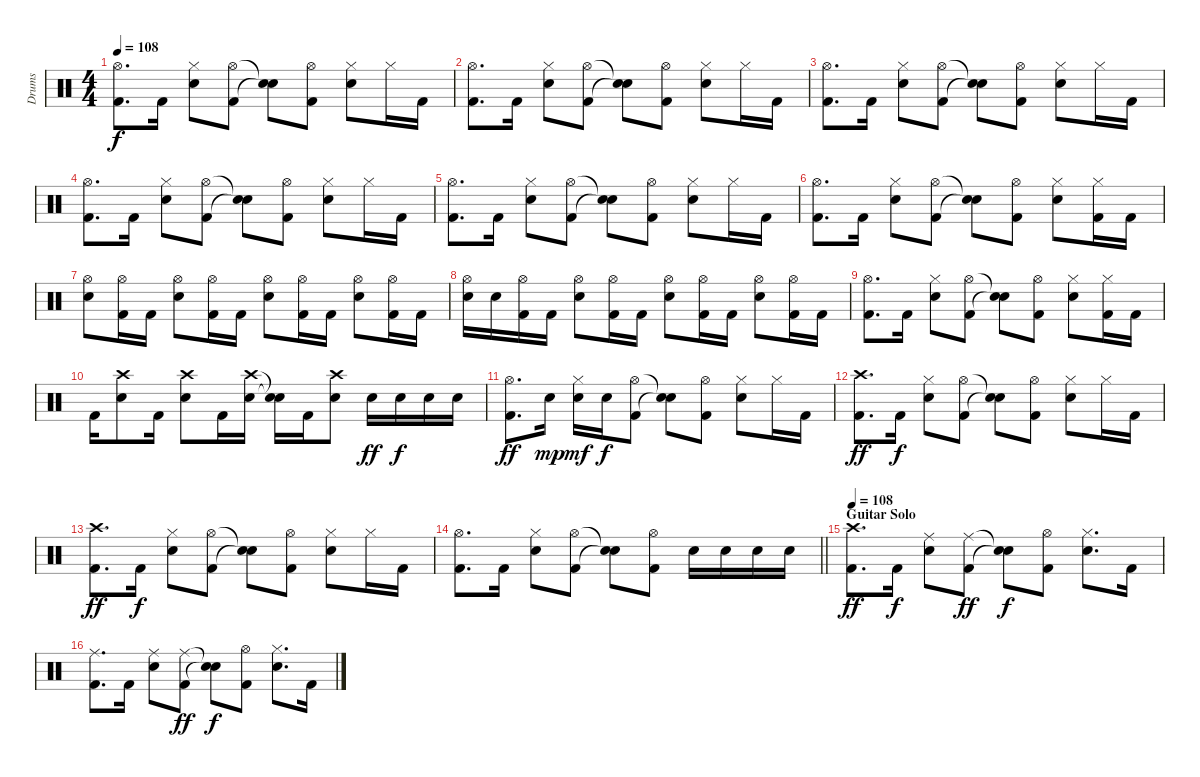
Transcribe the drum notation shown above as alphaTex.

\track ("Drums" "Drums") {instrument percussion}
\staff {score}
\articulation defaults
\ts (4 4)
\tempo 108
\clef neutral
\ks c
("Hi-Hat (open)" "Kick (hit) 2").8{d dy f} "Kick (hit) 2".16 ("Hi-Hat (closed)" "Electric Snare (hit)").8 ("Hi-Hat (open)" "Kick (hit) 2").8 ("Snare (hit)"{t} "Snare (hit)"{t}).8 ("Hi-Hat (open)" "Kick (hit) 2").8 ("Hi-Hat (closed)" "Electric Snare (hit)").8 "Hi-Hat (closed)".16 "Kick (hit) 2".16 |
("Hi-Hat (open)" "Kick (hit) 2").8{d} "Kick (hit) 2".16 ("Hi-Hat (closed)" "Electric Snare (hit)").8 ("Hi-Hat (open)" "Kick (hit) 2").8 ("Snare (hit)"{t} "Snare (hit)"{t}).8 ("Hi-Hat (open)" "Kick (hit) 2").8 ("Hi-Hat (closed)" "Electric Snare (hit)").8 "Hi-Hat (closed)".16 "Kick (hit) 2".16 |
("Hi-Hat (open)" "Kick (hit) 2").8{d} "Kick (hit) 2".16 ("Hi-Hat (closed)" "Electric Snare (hit)").8 ("Hi-Hat (open)" "Kick (hit) 2").8 ("Snare (hit)"{t} "Snare (hit)"{t}).8 ("Hi-Hat (open)" "Kick (hit) 2").8 ("Hi-Hat (closed)" "Electric Snare (hit)").8 "Hi-Hat (closed)".16 "Kick (hit) 2".16 |
("Hi-Hat (open)" "Kick (hit) 2").8{d} "Kick (hit) 2".16 ("Hi-Hat (closed)" "Electric Snare (hit)").8 ("Hi-Hat (open)" "Kick (hit) 2").8 ("Snare (hit)"{t} "Snare (hit)"{t}).8 ("Hi-Hat (open)" "Kick (hit) 2").8 ("Hi-Hat (closed)" "Electric Snare (hit)").8 "Hi-Hat (closed)".16 "Kick (hit) 2".16 |
("Hi-Hat (open)" "Kick (hit) 2").8{d} "Kick (hit) 2".16 ("Hi-Hat (closed)" "Electric Snare (hit)").8 ("Hi-Hat (open)" "Kick (hit) 2").8 ("Snare (hit)"{t} "Snare (hit)"{t}).8 ("Hi-Hat (open)" "Kick (hit) 2").8 ("Hi-Hat (closed)" "Electric Snare (hit)").8 "Hi-Hat (closed)".16 "Kick (hit) 2".16 |
("Hi-Hat (open)" "Kick (hit) 2").8{d} "Kick (hit) 2".16 ("Hi-Hat (closed)" "Electric Snare (hit)").8 ("Hi-Hat (open)" "Kick (hit) 2").8 ("Snare (hit)"{t} "Snare (hit)"{t}).8 ("Hi-Hat (open)" "Kick (hit) 2").8 ("Hi-Hat (closed)" "Electric Snare (hit)").8 ("Hi-Hat (closed)" "Kick (hit) 2").16 "Kick (hit) 2".16 |
("Hi-Hat (open)" "Electric Snare (hit)").8 ("Hi-Hat (open)" "Kick (hit) 2").16 "Kick (hit) 2".16 ("Hi-Hat (open)" "Electric Snare (hit)").8 ("Hi-Hat (open)" "Kick (hit) 2").16 "Kick (hit) 2".16 ("Hi-Hat (open)" "Electric Snare (hit)").8 ("Hi-Hat (open)" "Kick (hit) 2").16 "Kick (hit) 2".16 ("Hi-Hat (open)" "Electric Snare (hit)").8 ("Hi-Hat (open)" "Kick (hit) 2").16 "Kick (hit) 2".16 |
("Hi-Hat (open)" "Electric Snare (hit)").16 "Electric Snare (hit)".16 ("Hi-Hat (open)" "Kick (hit) 2").16 "Kick (hit) 2".16 ("Hi-Hat (open)" "Electric Snare (hit)").8 ("Hi-Hat (open)" "Kick (hit) 2").16 "Kick (hit) 2".16 ("Hi-Hat (open)" "Electric Snare (hit)").8 ("Hi-Hat (open)" "Kick (hit) 2").16 "Kick (hit) 2".16 ("Hi-Hat (open)" "Electric Snare (hit)").8 ("Hi-Hat (open)" "Kick (hit) 2").16 "Kick (hit) 2".16 |
("Hi-Hat (open)" "Kick (hit) 2").8{d} "Kick (hit) 2".16 ("Hi-Hat (closed)" "Electric Snare (hit)").8 ("Hi-Hat (open)" "Kick (hit) 2").8 ("Snare (hit)"{t} "Snare (hit)"{t}).8 ("Hi-Hat (open)" "Kick (hit) 2").8 ("Hi-Hat (closed)" "Electric Snare (hit)").8 ("Hi-Hat (closed)" "Kick (hit) 2").16 "Kick (hit) 2".16 |
"Kick (hit) 2".16 ("Crash high (hit)" "Electric Snare (hit)").8 "Kick (hit) 2".16 ("Crash high (hit)" "Electric Snare (hit)").8 "Kick (hit) 2".16 ("Crash high (hit)" "Electric Snare (hit)").16 ("Snare (hit)"{t} "Snare (hit)"{t}).16 "Kick (hit) 2".16 ("Crash high (hit)" "Electric Snare (hit)").8 "Electric Snare (hit)".16{dy ff} "Electric Snare (hit)".16{dy f} "Electric Snare (hit)".16 "Electric Snare (hit)".16 |
("Hi-Hat (open)" "Kick (hit) 2").8{d dy ff} "Electric Snare (hit)".16{dy mp} ("Hi-Hat (closed)" "Electric Snare (hit)").16{dy mf} "Electric Snare (hit)".16{dy f} ("Hi-Hat (open)" "Kick (hit) 2").8 ("Snare (hit)"{t} "Snare (hit)"{t}).8 ("Hi-Hat (open)" "Kick (hit) 2").8 ("Hi-Hat (closed)" "Electric Snare (hit)").8 "Hi-Hat (closed)".16 "Kick (hit) 2".16 |
("Crash high (hit)" "Kick (hit) 2").8{d dy ff} "Kick (hit) 2".16{dy f} ("Hi-Hat (closed)" "Electric Snare (hit)").8 ("Hi-Hat (open)" "Kick (hit) 2").8 ("Snare (hit)"{t} "Snare (hit)"{t}).8 ("Hi-Hat (open)" "Kick (hit) 2").8 ("Hi-Hat (closed)" "Electric Snare (hit)").8 "Hi-Hat (closed)".16 "Kick (hit) 2".16 |
("Crash high (hit)" "Kick (hit) 2").8{d dy ff} "Kick (hit) 2".16{dy f} ("Hi-Hat (closed)" "Electric Snare (hit)").8 ("Hi-Hat (open)" "Kick (hit) 2").8 ("Snare (hit)"{t} "Snare (hit)"{t}).8 ("Hi-Hat (open)" "Kick (hit) 2").8 ("Hi-Hat (closed)" "Electric Snare (hit)").8 "Hi-Hat (closed)".16 "Kick (hit) 2".16 |
\barLineRight lightlight
("Hi-Hat (open)" "Kick (hit) 2").8{d} "Kick (hit) 2".16 ("Hi-Hat (closed)" "Electric Snare (hit)").8 ("Hi-Hat (open)" "Kick (hit) 2").8 ("Snare (hit)"{t} "Snare (hit)"{t}).8 ("Hi-Hat (open)" "Kick (hit) 2").8 "Electric Snare (hit)".16 "Electric Snare (hit)".16 "Electric Snare (hit)".16 "Electric Snare (hit)".16 |
\section ("" "Guitar Solo")
\tempo 108
("Crash high (hit)" "Kick (hit) 2").8{d dy ff} "Kick (hit) 2".16{dy f} ("Ride (middle)" "Electric Snare (hit)").8 ("Ride (middle)" "Kick (hit) 2").8{dy ff} ("Snare (hit)"{t} "Snare (hit)"{t}).8{dy f} ("Hi-Hat (open)" "Kick (hit) 2").8 ("Hi-Hat (closed)" "Electric Snare (hit)").8{d} "Kick (hit) 2".16 |
("Ride (middle)" "Kick (hit) 2").8{d} "Kick (hit) 2".16 ("Ride (middle)" "Electric Snare (hit)").8 ("Ride (middle)" "Kick (hit) 2").8{dy ff} ("Snare (hit)"{t} "Snare (hit)"{t}).8{dy f} ("Hi-Hat (open)" "Kick (hit) 2").8 ("Hi-Hat (closed)" "Electric Snare (hit)").8{d} "Kick (hit) 2".16
